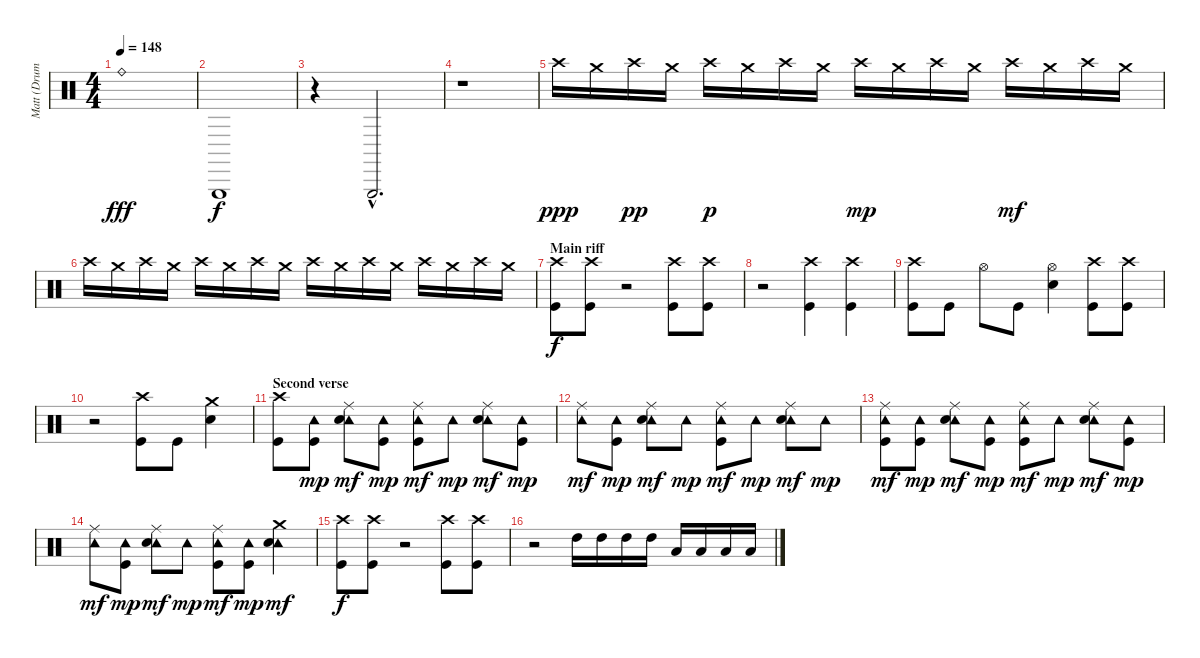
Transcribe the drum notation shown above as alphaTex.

\track ("Matt (Drums)" "Matt (Drum") {instrument percussion}
\staff {score}
\articulation defaults
\ts (4 4)
\tempo 148
\clef neutral
\ks c "Ride (bell)".1{dy fff}
|
"Triangle (hit)".1{dy f} |
r.4 "Triangle (hit)"{hac}.2{d} |
r.1 |
"Crash high (hit)".16{dy ppp} "Crash medium (hit)".16 "Crash high (hit)".16{dy pp} "Crash medium (hit)".16 "Crash high (hit)".16{dy p} "Crash medium (hit)".16 "Crash high (hit)".16 "Crash medium (hit)".16 "Crash high (hit)".16{dy mp} "Crash medium (hit)".16 "Crash high (hit)".16 "Crash medium (hit)".16 "Crash high (hit)".16{dy mf} "Crash medium (hit)".16 "Crash high (hit)".16 "Crash medium (hit)".16 |
"Crash high (hit)".16 "Crash medium (hit)".16 "Crash high (hit)".16 "Crash medium (hit)".16 "Crash high (hit)".16 "Crash medium (hit)".16 "Crash high (hit)".16 "Crash medium (hit)".16 "Crash high (hit)".16 "Crash medium (hit)".16 "Crash high (hit)".16 "Crash medium (hit)".16 "Crash high (hit)".16 "Crash medium (hit)".16 "Crash high (hit)".16 "Crash medium (hit)".16 |
\section ("" "Main riff")
("Crash high (hit)" "Kick (hit)").8{dy f} ("Crash high (hit)" "Kick (hit)").8 r.2 ("Crash high (hit)" "Kick (hit)").8 ("Crash high (hit)" "Kick (hit)").8 |
r.2 ("Crash high (hit)" "Kick (hit)").4 ("Crash high (hit)" "Kick (hit)").4 |
("Crash high (hit)" "Kick (hit)").8 "Kick (hit)".8 "Hi-Hat (open)".8 "Kick (hit)".8 ("Hi-Hat (open)" "Electric Snare (hit)").4 ("Crash high (hit)" "Kick (hit)").8 ("Crash high (hit)" "Kick (hit)").8 |
r.2 ("Crash high (hit)" "Kick (hit)").8 "Kick (hit)".8 ("Crash medium (hit)" "Electric Snare (hit)").4 |
\section ("" "Second verse")
("Crash high (hit)" "Kick (hit)").8 ("Tambourine (hit)" "Kick (hit)").8{dy mp} ("Ride (middle)" "Tambourine (hit)" "Electric Snare (hit)").8{dy mf} ("Tambourine (hit)" "Kick (hit)").8{dy mp} ("Ride (middle)" "Tambourine (hit)" "Kick (hit)").8{dy mf} "Tambourine (hit)".8{dy mp} ("Ride (middle)" "Tambourine (hit)" "Electric Snare (hit)").8{dy mf} ("Tambourine (hit)" "Kick (hit)").8{dy mp} |
("Ride (middle)" "Tambourine (hit)").8{dy mf} ("Tambourine (hit)" "Kick (hit)").8{dy mp} ("Ride (middle)" "Tambourine (hit)" "Electric Snare (hit)").8{dy mf} "Tambourine (hit)".8{dy mp} ("Ride (middle)" "Tambourine (hit)" "Kick (hit)").8{dy mf} "Tambourine (hit)".8{dy mp} ("Ride (middle)" "Tambourine (hit)" "Electric Snare (hit)").8{dy mf} "Tambourine (hit)".8{dy mp} |
("Ride (middle)" "Tambourine (hit)" "Kick (hit)").8{dy mf} ("Tambourine (hit)" "Kick (hit)").8{dy mp} ("Ride (middle)" "Tambourine (hit)" "Electric Snare (hit)").8{dy mf} ("Tambourine (hit)" "Kick (hit)").8{dy mp} ("Ride (middle)" "Tambourine (hit)" "Kick (hit)").8{dy mf} "Tambourine (hit)".8{dy mp} ("Ride (middle)" "Tambourine (hit)" "Electric Snare (hit)").8{dy mf} ("Tambourine (hit)" "Kick (hit)").8{dy mp} |
("Ride (middle)" "Tambourine (hit)").8{dy mf} ("Tambourine (hit)" "Kick (hit)").8{dy mp} ("Ride (middle)" "Tambourine (hit)" "Electric Snare (hit)").8{dy mf} "Tambourine (hit)".8{dy mp} ("Ride (middle)" "Tambourine (hit)" "Kick (hit)").8{dy mf} ("Tambourine (hit)" "Kick (hit)").8{dy mp} ("Crash medium (hit)" "Tambourine (hit)" "Electric Snare (hit)").4{dy mf} |
("Crash high (hit)" "Kick (hit)").8{dy f} ("Crash high (hit)" "Kick (hit)").8 r.2 ("Crash high (hit)" "Kick (hit)").8 ("Crash high (hit)" "Kick (hit)").8 |
r.2 "High Tom (hit)".16 "High Tom (hit)".16 "High Tom (hit)".16 "High Tom (hit)".16 "Low Tom (hit)".16 "Low Tom (hit)".16 "Low Tom (hit)".16 "Low Tom (hit)".16
